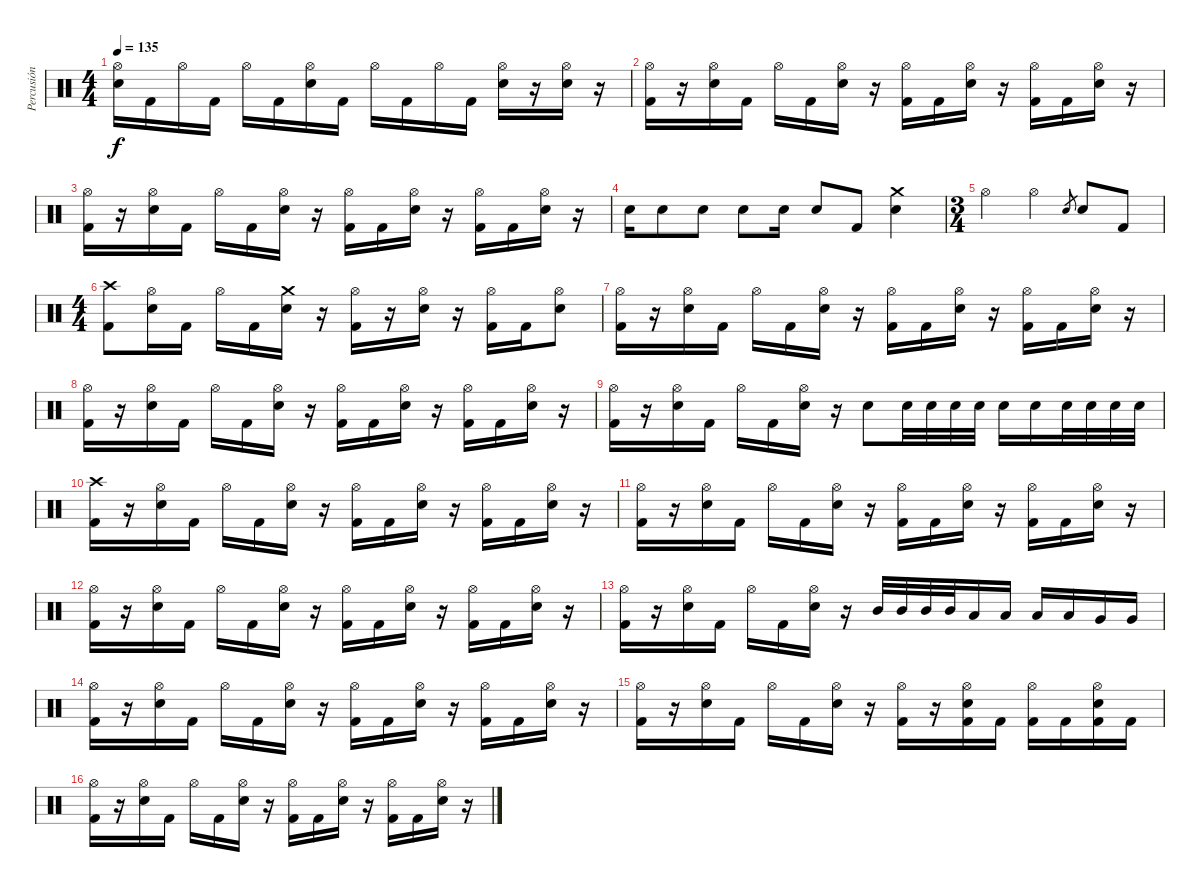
\track ("Percusión" "Percusión") {instrument percussion}
\staff {score}
\articulation defaults
\ts (4 4)
\tempo 135
\clef neutral
\ks c
("Hi-Hat (open)" "Electric Snare (hit)").16{dy f} "Kick (hit) 2".16 "Hi-Hat (open)".16 "Kick (hit) 2".16 "Hi-Hat (open)".16 "Kick (hit) 2".16 ("Hi-Hat (open)" "Electric Snare (hit)").16 "Kick (hit) 2".16 "Hi-Hat (open)".16 "Kick (hit) 2".16 "Hi-Hat (open)".16 "Kick (hit) 2".16 ("Hi-Hat (open)" "Electric Snare (hit)").16 r.16 ("Hi-Hat (open)" "Electric Snare (hit)").16 r.16 |
("Hi-Hat (open)" "Kick (hit) 2").16 r.16 ("Hi-Hat (open)" "Electric Snare (hit)").16 "Kick (hit) 2".16 "Hi-Hat (open)".16 "Kick (hit) 2".16 ("Hi-Hat (open)" "Electric Snare (hit)").16 r.16 ("Hi-Hat (open)" "Kick (hit) 2").16 "Kick (hit) 2".16 ("Hi-Hat (open)" "Electric Snare (hit)").16 r.16 ("Hi-Hat (open)" "Kick (hit) 2").16 "Kick (hit) 2".16 ("Hi-Hat (open)" "Electric Snare (hit)").16 r.16 |
("Hi-Hat (open)" "Kick (hit) 2").16 r.16 ("Hi-Hat (open)" "Electric Snare (hit)").16 "Kick (hit) 2".16 "Hi-Hat (open)".16 "Kick (hit) 2".16 ("Hi-Hat (open)" "Electric Snare (hit)").16 r.16 ("Hi-Hat (open)" "Kick (hit) 2").16 "Kick (hit) 2".16 ("Hi-Hat (open)" "Electric Snare (hit)").16 r.16 ("Hi-Hat (open)" "Kick (hit) 2").16 "Kick (hit) 2".16 ("Hi-Hat (open)" "Electric Snare (hit)").16 r.16 |
"Electric Snare (hit)".16 "Electric Snare (hit)".8 "Electric Snare (hit)".8 "Electric Snare (hit)".8 "Electric Snare (hit)".16 "Electric Snare (hit)".8 "Kick (hit) 2".8 ("Crash medium (hit)" "Electric Snare (hit)").4 |
\ts (3 4)
"Hi-Hat (open)".4 "Hi-Hat (open)".4 "Electric Snare (hit)".8{gr} "Electric Snare (hit)".8 "Kick (hit) 2".8 |
\ts (4 4)
("Crash high (hit)" "Kick (hit) 2").8 ("Hi-Hat (open)" "Electric Snare (hit)").16 "Kick (hit) 2".16 "Hi-Hat (open)".16 "Kick (hit) 2".16 ("Crash medium (hit)" "Electric Snare (hit)").16 r.16 ("Hi-Hat (open)" "Kick (hit) 2").16 r.16 ("Hi-Hat (open)" "Electric Snare (hit)").16 r.16 ("Hi-Hat (open)" "Kick (hit) 2").16 "Kick (hit) 2".16 ("Hi-Hat (open)" "Electric Snare (hit)").8 |
("Hi-Hat (open)" "Kick (hit) 2").16 r.16 ("Hi-Hat (open)" "Electric Snare (hit)").16 "Kick (hit) 2".16 "Hi-Hat (open)".16 "Kick (hit) 2".16 ("Hi-Hat (open)" "Electric Snare (hit)").16 r.16 ("Hi-Hat (open)" "Kick (hit) 2").16 "Kick (hit) 2".16 ("Hi-Hat (open)" "Electric Snare (hit)").16 r.16 ("Hi-Hat (open)" "Kick (hit) 2").16 "Kick (hit) 2".16 ("Hi-Hat (open)" "Electric Snare (hit)").16 r.16 |
("Hi-Hat (open)" "Kick (hit) 2").16 r.16 ("Hi-Hat (open)" "Electric Snare (hit)").16 "Kick (hit) 2".16 "Hi-Hat (open)".16 "Kick (hit) 2".16 ("Hi-Hat (open)" "Electric Snare (hit)").16 r.16 ("Hi-Hat (open)" "Kick (hit) 2").16 "Kick (hit) 2".16 ("Hi-Hat (open)" "Electric Snare (hit)").16 r.16 ("Hi-Hat (open)" "Kick (hit) 2").16 "Kick (hit) 2".16 ("Hi-Hat (open)" "Electric Snare (hit)").16 r.16 |
("Hi-Hat (open)" "Kick (hit) 2").16 r.16 ("Hi-Hat (open)" "Electric Snare (hit)").16 "Kick (hit) 2".16 "Hi-Hat (open)".16 "Kick (hit) 2".16 ("Hi-Hat (open)" "Electric Snare (hit)").16 r.16 "Electric Snare (hit)".8 "Electric Snare (hit)".32 "Electric Snare (hit)".32 "Electric Snare (hit)".32 "Electric Snare (hit)".32 "Electric Snare (hit)".16 "Electric Snare (hit)".16 "Electric Snare (hit)".32 "Electric Snare (hit)".32 "Electric Snare (hit)".32 "Electric Snare (hit)".32 |
("Crash high (hit)" "Kick (hit) 2").16 r.16 ("Hi-Hat (open)" "Electric Snare (hit)").16 "Kick (hit) 2".16 "Hi-Hat (open)".16 "Kick (hit) 2".16 ("Hi-Hat (open)" "Electric Snare (hit)").16 r.16 ("Hi-Hat (open)" "Kick (hit) 2").16 "Kick (hit) 2".16 ("Hi-Hat (open)" "Electric Snare (hit)").16 r.16 ("Hi-Hat (open)" "Kick (hit) 2").16 "Kick (hit) 2".16 ("Hi-Hat (open)" "Electric Snare (hit)").16 r.16 |
("Hi-Hat (open)" "Kick (hit) 2").16 r.16 ("Hi-Hat (open)" "Electric Snare (hit)").16 "Kick (hit) 2".16 "Hi-Hat (open)".16 "Kick (hit) 2".16 ("Hi-Hat (open)" "Electric Snare (hit)").16 r.16 ("Hi-Hat (open)" "Kick (hit) 2").16 "Kick (hit) 2".16 ("Hi-Hat (open)" "Electric Snare (hit)").16 r.16 ("Hi-Hat (open)" "Kick (hit) 2").16 "Kick (hit) 2".16 ("Hi-Hat (open)" "Electric Snare (hit)").16 r.16 |
("Hi-Hat (open)" "Kick (hit) 2").16 r.16 ("Hi-Hat (open)" "Electric Snare (hit)").16 "Kick (hit) 2".16 "Hi-Hat (open)".16 "Kick (hit) 2".16 ("Hi-Hat (open)" "Electric Snare (hit)").16 r.16 ("Hi-Hat (open)" "Kick (hit) 2").16 "Kick (hit) 2".16 ("Hi-Hat (open)" "Electric Snare (hit)").16 r.16 ("Hi-Hat (open)" "Kick (hit) 2").16 "Kick (hit) 2".16 ("Hi-Hat (open)" "Electric Snare (hit)").16 r.16 |
("Hi-Hat (open)" "Kick (hit) 2").16 r.16 ("Hi-Hat (open)" "Electric Snare (hit)").16 "Kick (hit) 2".16 "Hi-Hat (open)".16 "Kick (hit) 2".16 ("Hi-Hat (open)" "Electric Snare (hit)").16 r.16 "Mid Tom (hit)".32 "Mid Tom (hit)".32 "Mid Tom (hit)".32 "Mid Tom (hit)".32 "Low Tom (hit)".16 "Low Tom (hit)".16 "Low Tom (hit)".16 "Low Tom (hit)".16 "Very Low Tom (hit)".16 "Very Low Tom (hit)".16 |
("Hi-Hat (open)" "Kick (hit) 2").16 r.16 ("Hi-Hat (open)" "Electric Snare (hit)").16 "Kick (hit) 2".16 "Hi-Hat (open)".16 "Kick (hit) 2".16 ("Hi-Hat (open)" "Electric Snare (hit)").16 r.16 ("Hi-Hat (open)" "Kick (hit) 2").16 "Kick (hit) 2".16 ("Hi-Hat (open)" "Electric Snare (hit)").16 r.16 ("Hi-Hat (open)" "Kick (hit) 2").16 "Kick (hit) 2".16 ("Hi-Hat (open)" "Electric Snare (hit)").16 r.16 |
("Hi-Hat (open)" "Kick (hit) 2").16 r.16 ("Hi-Hat (open)" "Electric Snare (hit)").16 "Kick (hit) 2".16 "Hi-Hat (open)".16 "Kick (hit) 2".16 ("Hi-Hat (open)" "Electric Snare (hit)").16 r.16 ("Hi-Hat (open)" "Kick (hit) 2").16 r.16 ("Hi-Hat (open)" "Electric Snare (hit)" "Kick (hit) 2").16 "Kick (hit) 2".16 ("Hi-Hat (open)" "Kick (hit) 2").16 "Kick (hit) 2".16 ("Hi-Hat (open)" "Electric Snare (hit)" "Kick (hit) 2").16 "Kick (hit) 2".16 |
("Hi-Hat (open)" "Kick (hit) 2").16 r.16 ("Hi-Hat (open)" "Electric Snare (hit)").16 "Kick (hit) 2".16 "Hi-Hat (open)".16 "Kick (hit) 2".16 ("Hi-Hat (open)" "Electric Snare (hit)").16 r.16 ("Hi-Hat (open)" "Kick (hit) 2").16 "Kick (hit) 2".16 ("Hi-Hat (open)" "Electric Snare (hit)").16 r.16 ("Hi-Hat (open)" "Kick (hit) 2").16 "Kick (hit) 2".16 ("Hi-Hat (open)" "Electric Snare (hit)").16 r.16
